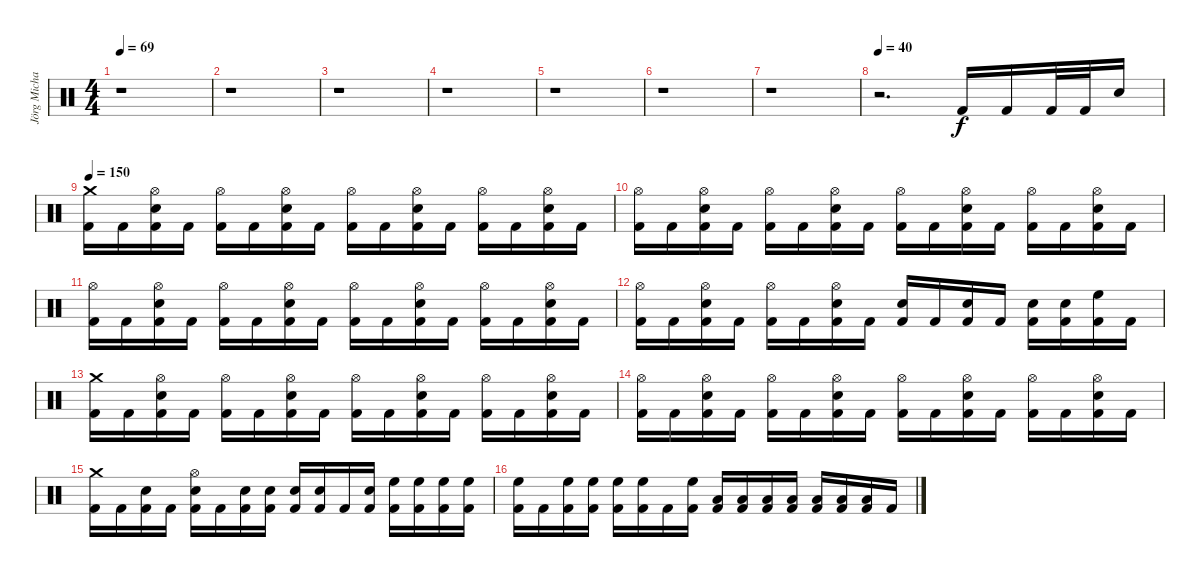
\track ("Jörg Michael" "Jörg Micha") {instrument percussion}
\staff {score}
\articulation defaults
\ts (4 4)
\tempo 69
\clef neutral
\ks c
r.1{dy f} |
r.1 |
r.1 |
r.1 |
r.1 |
r.1 |
r.1 |
\tempo 40
r.2{d} "Kick (hit) 2".16 "Kick (hit) 2".16 "Kick (hit) 2".32 "Kick (hit) 2".32 "Snare (hit) 2".16 |
\tempo 150
("Kick (hit) 2" "Crash medium (hit)").16 "Kick (hit) 2".16 ("Kick (hit) 2" "Snare (hit) 2" "Hi-Hat (open)").16 "Kick (hit) 2".16 ("Kick (hit) 2" "Hi-Hat (open)").16 "Kick (hit) 2".16 ("Kick (hit) 2" "Snare (hit) 2" "Hi-Hat (open)").16 "Kick (hit) 2".16 ("Kick (hit) 2" "Hi-Hat (open)").16 "Kick (hit) 2".16 ("Kick (hit) 2" "Snare (hit) 2" "Hi-Hat (open)").16 "Kick (hit) 2".16 ("Kick (hit) 2" "Hi-Hat (open)").16 "Kick (hit) 2".16 ("Kick (hit) 2" "Snare (hit) 2" "Hi-Hat (open)").16 "Kick (hit) 2".16 |
("Hi-Hat (open)" "Kick (hit) 2").16 "Kick (hit) 2".16 ("Kick (hit) 2" "Snare (hit) 2" "Hi-Hat (open)").16 "Kick (hit) 2".16 ("Kick (hit) 2" "Hi-Hat (open)").16 "Kick (hit) 2".16 ("Kick (hit) 2" "Snare (hit) 2" "Hi-Hat (open)").16 "Kick (hit) 2".16 ("Kick (hit) 2" "Hi-Hat (open)").16 "Kick (hit) 2".16 ("Kick (hit) 2" "Snare (hit) 2" "Hi-Hat (open)").16 "Kick (hit) 2".16 ("Kick (hit) 2" "Hi-Hat (open)").16 "Kick (hit) 2".16 ("Kick (hit) 2" "Snare (hit) 2" "Hi-Hat (open)").16 "Kick (hit) 2".16 |
("Hi-Hat (open)" "Kick (hit) 2").16 "Kick (hit) 2".16 ("Kick (hit) 2" "Snare (hit) 2" "Hi-Hat (open)").16 "Kick (hit) 2".16 ("Kick (hit) 2" "Hi-Hat (open)").16 "Kick (hit) 2".16 ("Kick (hit) 2" "Snare (hit) 2" "Hi-Hat (open)").16 "Kick (hit) 2".16 ("Kick (hit) 2" "Hi-Hat (open)").16 "Kick (hit) 2".16 ("Kick (hit) 2" "Snare (hit) 2" "Hi-Hat (open)").16 "Kick (hit) 2".16 ("Kick (hit) 2" "Hi-Hat (open)").16 "Kick (hit) 2".16 ("Kick (hit) 2" "Snare (hit) 2" "Hi-Hat (open)").16 "Kick (hit) 2".16 |
("Hi-Hat (open)" "Kick (hit) 2").16 "Kick (hit) 2".16 ("Kick (hit) 2" "Snare (hit) 2" "Hi-Hat (open)").16 "Kick (hit) 2".16 ("Kick (hit) 2" "Hi-Hat (open)").16 "Kick (hit) 2".16 ("Kick (hit) 2" "Snare (hit) 2" "Hi-Hat (open)").16 "Kick (hit) 2".16 ("Snare (hit) 2" "Kick (hit) 2").16 "Kick (hit) 2".16 ("Snare (hit) 2" "Kick (hit) 2").16 "Kick (hit) 2".16 ("Snare (hit) 2" "Kick (hit) 2").16 ("Snare (hit) 2" "Kick (hit) 2").16 ("High Floor Tom (hit)" "Kick (hit) 2").16 "Kick (hit) 2".16 |
("Kick (hit) 2" "Crash medium (hit)").16 "Kick (hit) 2".16 ("Kick (hit) 2" "Snare (hit) 2" "Hi-Hat (open)").16 "Kick (hit) 2".16 ("Kick (hit) 2" "Hi-Hat (open)").16 "Kick (hit) 2".16 ("Kick (hit) 2" "Snare (hit) 2" "Hi-Hat (open)").16 "Kick (hit) 2".16 ("Kick (hit) 2" "Hi-Hat (open)").16 "Kick (hit) 2".16 ("Kick (hit) 2" "Snare (hit) 2" "Hi-Hat (open)").16 "Kick (hit) 2".16 ("Kick (hit) 2" "Hi-Hat (open)").16 "Kick (hit) 2".16 ("Kick (hit) 2" "Snare (hit) 2" "Hi-Hat (open)").16 "Kick (hit) 2".16 |
("Hi-Hat (open)" "Kick (hit) 2").16 "Kick (hit) 2".16 ("Kick (hit) 2" "Snare (hit) 2" "Hi-Hat (open)").16 "Kick (hit) 2".16 ("Kick (hit) 2" "Hi-Hat (open)").16 "Kick (hit) 2".16 ("Kick (hit) 2" "Snare (hit) 2" "Hi-Hat (open)").16 "Kick (hit) 2".16 ("Kick (hit) 2" "Hi-Hat (open)").16 "Kick (hit) 2".16 ("Kick (hit) 2" "Snare (hit) 2" "Hi-Hat (open)").16 "Kick (hit) 2".16 ("Kick (hit) 2" "Hi-Hat (open)").16 "Kick (hit) 2".16 ("Kick (hit) 2" "Snare (hit) 2" "Hi-Hat (open)").16 "Kick (hit) 2".16 |
("Crash medium (hit)" "Kick (hit) 2").16 "Kick (hit) 2".16 ("Snare (hit) 2" "Kick (hit) 2").16 "Kick (hit) 2".16 ("Snare (hit) 2" "Hi-Hat (open)" "Kick (hit) 2").16 "Kick (hit) 2".16 ("Snare (hit) 2" "Kick (hit) 2").16 ("Snare (hit) 2" "Kick (hit) 2").16 ("Snare (hit) 2" "Kick (hit) 2").16 ("Snare (hit) 2" "Kick (hit) 2").16 "Kick (hit) 2".16 ("Snare (hit) 2" "Kick (hit) 2").16 ("High Floor Tom (hit)" "Kick (hit) 2").16 ("High Floor Tom (hit)" "Kick (hit) 2").16 ("High Floor Tom (hit)" "Kick (hit) 2").16 ("High Floor Tom (hit)" "Kick (hit) 2").16 |
("High Floor Tom (hit)" "Kick (hit) 2").16 "Kick (hit) 2".16 ("High Floor Tom (hit)" "Kick (hit) 2").16 ("High Floor Tom (hit)" "Kick (hit) 2").16 ("High Floor Tom (hit)" "Kick (hit) 2").16 ("High Floor Tom (hit)" "Kick (hit) 2").16 "Kick (hit) 2".16 ("High Floor Tom (hit)" "Kick (hit) 2").16 ("Low Tom (hit)" "Kick (hit) 2").16 ("Low Tom (hit)" "Kick (hit) 2").16 ("Low Tom (hit)" "Kick (hit) 2").16 ("Low Tom (hit)" "Kick (hit) 2").16 ("Low Tom (hit)" "Kick (hit) 2").16 ("Low Tom (hit)" "Kick (hit) 2").16 ("Low Tom (hit)" "Kick (hit) 2").16 "Kick (hit) 2".16
